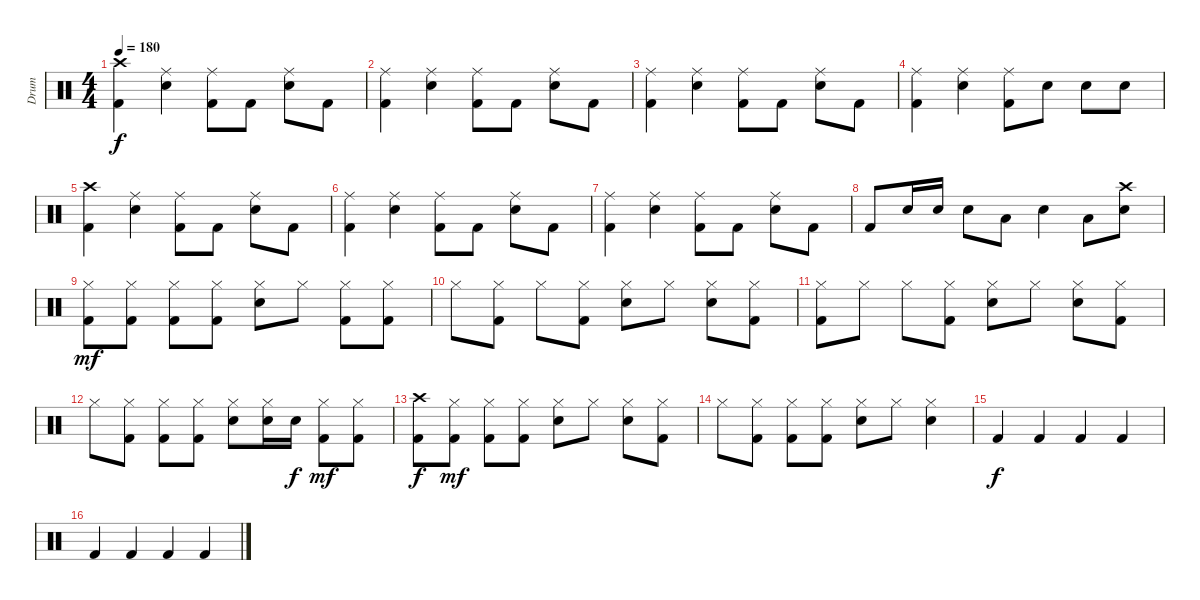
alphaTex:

\track ("Drum" "Drum") {instrument percussion}
\staff {score}
\articulation defaults
\ts (4 4)
\tempo 180
\clef neutral
\ks c
("Crash high (hit)" "Kick (hit) 2").4{dy f} ("Ride (middle)" "Electric Snare (hit)").4 ("Ride (middle)" "Kick (hit) 2").8 "Kick (hit) 2".8 ("Ride (middle)" "Electric Snare (hit)").8 "Kick (hit) 2".8 |
("Ride (middle)" "Kick (hit) 2").4 ("Ride (middle)" "Electric Snare (hit)").4 ("Ride (middle)" "Kick (hit) 2").8 "Kick (hit) 2".8 ("Ride (middle)" "Electric Snare (hit)").8 "Kick (hit) 2".8 |
("Ride (middle)" "Kick (hit) 2").4 ("Ride (middle)" "Electric Snare (hit)").4 ("Ride (middle)" "Kick (hit) 2").8 "Kick (hit) 2".8 ("Ride (middle)" "Electric Snare (hit)").8 "Kick (hit) 2".8 |
("Ride (middle)" "Kick (hit) 2").4 ("Ride (middle)" "Electric Snare (hit)").4 ("Ride (middle)" "Kick (hit) 2").8 "Electric Snare (hit)".8 "Electric Snare (hit)".8 "Electric Snare (hit)".8 |
("Crash high (hit)" "Kick (hit) 2").4 ("Ride (middle)" "Electric Snare (hit)").4 ("Ride (middle)" "Kick (hit) 2").8 "Kick (hit) 2".8 ("Ride (middle)" "Electric Snare (hit)").8 "Kick (hit) 2".8 |
("Ride (middle)" "Kick (hit) 2").4 ("Ride (middle)" "Electric Snare (hit)").4 ("Ride (middle)" "Kick (hit) 2").8 "Kick (hit) 2".8 ("Ride (middle)" "Electric Snare (hit)").8 "Kick (hit) 2".8 |
("Ride (middle)" "Kick (hit) 2").4 ("Ride (middle)" "Electric Snare (hit)").4 ("Ride (middle)" "Kick (hit) 2").8 "Kick (hit) 2".8 ("Ride (middle)" "Electric Snare (hit)").8 "Kick (hit) 2".8 |
"Kick (hit) 2".8 "Electric Snare (hit)".16 "Electric Snare (hit)".16 "Electric Snare (hit)".8 "Low Floor Tom (hit)".8 "Electric Snare (hit)".4 "Low Tom (hit)".8 ("Crash high (hit)" "Electric Snare (hit)").8 |
("Hi-Hat (closed)" "Kick (hit) 2").8{dy mf} ("Hi-Hat (closed)" "Kick (hit) 2").8 ("Hi-Hat (closed)" "Kick (hit) 2").8 ("Hi-Hat (closed)" "Kick (hit) 2").8 ("Hi-Hat (closed)" "Electric Snare (hit)").8 "Hi-Hat (closed)".8 ("Hi-Hat (closed)" "Kick (hit) 2").8 ("Hi-Hat (closed)" "Kick (hit) 2").8 |
"Hi-Hat (closed)".8 ("Hi-Hat (closed)" "Kick (hit) 2").8 "Hi-Hat (closed)".8 ("Hi-Hat (closed)" "Kick (hit) 2").8 ("Hi-Hat (closed)" "Electric Snare (hit)").8 "Hi-Hat (closed)".8 ("Hi-Hat (closed)" "Electric Snare (hit)").8 ("Hi-Hat (closed)" "Kick (hit) 2").8 |
("Hi-Hat (closed)" "Kick (hit) 2").8 "Hi-Hat (closed)".8 "Hi-Hat (closed)".8 ("Hi-Hat (closed)" "Kick (hit) 2").8 ("Hi-Hat (closed)" "Electric Snare (hit)").8 "Hi-Hat (closed)".8 ("Hi-Hat (closed)" "Electric Snare (hit)").8 ("Hi-Hat (closed)" "Kick (hit) 2").8 |
"Hi-Hat (closed)".8 ("Hi-Hat (closed)" "Kick (hit) 2").8 ("Hi-Hat (closed)" "Kick (hit) 2").8 ("Hi-Hat (closed)" "Kick (hit) 2").8 ("Hi-Hat (closed)" "Electric Snare (hit)").8 ("Hi-Hat (closed)" "Electric Snare (hit)").16 "Electric Snare (hit)".16{dy f} ("Hi-Hat (closed)" "Kick (hit) 2").8{dy mf} ("Hi-Hat (closed)" "Kick (hit) 2").8 |
("Crash high (hit)" "Kick (hit) 2").8{dy f} ("Hi-Hat (closed)" "Kick (hit) 2").8{dy mf} ("Hi-Hat (closed)" "Kick (hit) 2").8 ("Hi-Hat (closed)" "Kick (hit) 2").8 ("Hi-Hat (closed)" "Electric Snare (hit)").8 "Hi-Hat (closed)".8 ("Hi-Hat (closed)" "Electric Snare (hit)").8 ("Hi-Hat (closed)" "Kick (hit) 2").8 |
"Hi-Hat (closed)".8 ("Hi-Hat (closed)" "Kick (hit) 2").8 ("Hi-Hat (closed)" "Kick (hit) 2").8 ("Hi-Hat (closed)" "Kick (hit) 2").8 ("Hi-Hat (closed)" "Electric Snare (hit)").8 "Hi-Hat (closed)".8 ("Hi-Hat (closed)" "Electric Snare (hit)").4 |
"Kick (hit) 2".4{dy f} "Kick (hit) 2".4 "Kick (hit) 2".4 "Kick (hit) 2".4 |
"Kick (hit) 2".4 "Kick (hit) 2".4 "Kick (hit) 2".4 "Kick (hit) 2".4
